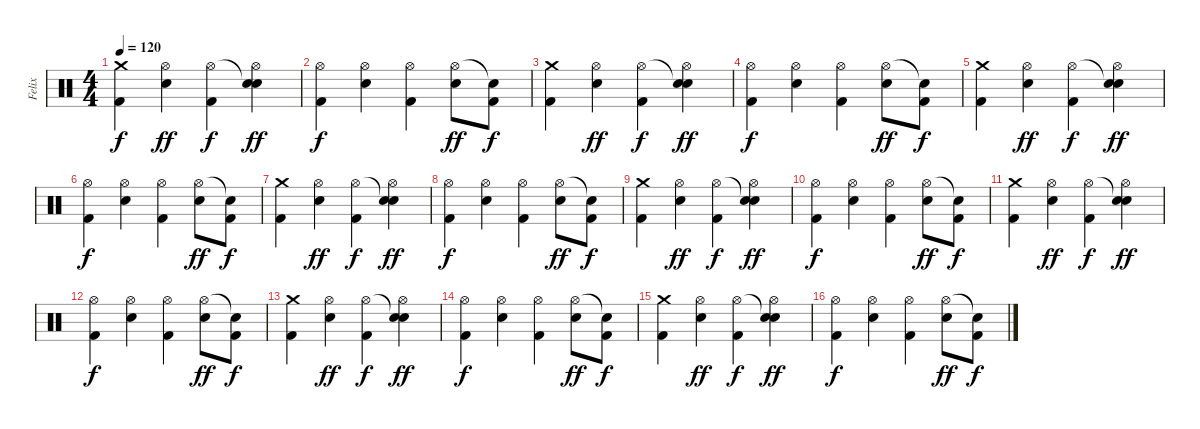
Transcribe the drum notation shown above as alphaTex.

\track ("Felix" "Felix") {instrument percussion}
\staff {score}
\articulation defaults
\ts (4 4)
\tempo 120
\clef neutral
\ks c
("Crash medium (hit)" "Kick (hit) 2").4{dy f} ("Hi-Hat (open)" "Electric Snare (hit)").4{dy ff} ("Hi-Hat (open)" "Kick (hit) 2").4{dy f} ("Snare (hit)"{t} "Hi-Hat (open)" "Electric Snare (hit)").4{dy ff} |
("Hi-Hat (open)" "Kick (hit) 2").4{dy f} ("Hi-Hat (open)" "Electric Snare (hit)").4 ("Hi-Hat (open)" "Kick (hit) 2").4 ("Hi-Hat (open)" "Electric Snare (hit)").8{dy ff} ("Snare (hit)"{t} "Kick (hit) 2").8{dy f} |
("Crash medium (hit)" "Kick (hit) 2").4 ("Hi-Hat (open)" "Electric Snare (hit)").4{dy ff} ("Hi-Hat (open)" "Kick (hit) 2").4{dy f} ("Snare (hit)"{t} "Hi-Hat (open)" "Electric Snare (hit)").4{dy ff} |
("Hi-Hat (open)" "Kick (hit) 2").4{dy f} ("Hi-Hat (open)" "Electric Snare (hit)").4 ("Hi-Hat (open)" "Kick (hit) 2").4 ("Hi-Hat (open)" "Electric Snare (hit)").8{dy ff} ("Snare (hit)"{t} "Kick (hit) 2").8{dy f} |
("Crash medium (hit)" "Kick (hit) 2").4 ("Hi-Hat (open)" "Electric Snare (hit)").4{dy ff} ("Hi-Hat (open)" "Kick (hit) 2").4{dy f} ("Snare (hit)"{t} "Hi-Hat (open)" "Electric Snare (hit)").4{dy ff} |
("Hi-Hat (open)" "Kick (hit) 2").4{dy f} ("Hi-Hat (open)" "Electric Snare (hit)").4 ("Hi-Hat (open)" "Kick (hit) 2").4 ("Hi-Hat (open)" "Electric Snare (hit)").8{dy ff} ("Snare (hit)"{t} "Kick (hit) 2").8{dy f} |
("Crash medium (hit)" "Kick (hit) 2").4 ("Hi-Hat (open)" "Electric Snare (hit)").4{dy ff} ("Hi-Hat (open)" "Kick (hit) 2").4{dy f} ("Snare (hit)"{t} "Hi-Hat (open)" "Electric Snare (hit)").4{dy ff} |
("Hi-Hat (open)" "Kick (hit) 2").4{dy f} ("Hi-Hat (open)" "Electric Snare (hit)").4 ("Hi-Hat (open)" "Kick (hit) 2").4 ("Hi-Hat (open)" "Electric Snare (hit)").8{dy ff} ("Snare (hit)"{t} "Kick (hit) 2").8{dy f} |
("Crash medium (hit)" "Kick (hit) 2").4 ("Hi-Hat (open)" "Electric Snare (hit)").4{dy ff} ("Hi-Hat (open)" "Kick (hit) 2").4{dy f} ("Snare (hit)"{t} "Hi-Hat (open)" "Electric Snare (hit)").4{dy ff} |
("Hi-Hat (open)" "Kick (hit) 2").4{dy f} ("Hi-Hat (open)" "Electric Snare (hit)").4 ("Hi-Hat (open)" "Kick (hit) 2").4 ("Hi-Hat (open)" "Electric Snare (hit)").8{dy ff} ("Snare (hit)"{t} "Kick (hit) 2").8{dy f} |
("Crash medium (hit)" "Kick (hit) 2").4 ("Hi-Hat (open)" "Electric Snare (hit)").4{dy ff} ("Hi-Hat (open)" "Kick (hit) 2").4{dy f} ("Snare (hit)"{t} "Hi-Hat (open)" "Electric Snare (hit)").4{dy ff} |
("Hi-Hat (open)" "Kick (hit) 2").4{dy f} ("Hi-Hat (open)" "Electric Snare (hit)").4 ("Hi-Hat (open)" "Kick (hit) 2").4 ("Hi-Hat (open)" "Electric Snare (hit)").8{dy ff} ("Snare (hit)"{t} "Kick (hit) 2").8{dy f} |
("Crash medium (hit)" "Kick (hit) 2").4 ("Hi-Hat (open)" "Electric Snare (hit)").4{dy ff} ("Hi-Hat (open)" "Kick (hit) 2").4{dy f} ("Snare (hit)"{t} "Hi-Hat (open)" "Electric Snare (hit)").4{dy ff} |
("Hi-Hat (open)" "Kick (hit) 2").4{dy f} ("Hi-Hat (open)" "Electric Snare (hit)").4 ("Hi-Hat (open)" "Kick (hit) 2").4 ("Hi-Hat (open)" "Electric Snare (hit)").8{dy ff} ("Snare (hit)"{t} "Kick (hit) 2").8{dy f} |
("Crash medium (hit)" "Kick (hit) 2").4 ("Hi-Hat (open)" "Electric Snare (hit)").4{dy ff} ("Hi-Hat (open)" "Kick (hit) 2").4{dy f} ("Snare (hit)"{t} "Hi-Hat (open)" "Electric Snare (hit)").4{dy ff} |
("Hi-Hat (open)" "Kick (hit) 2").4{dy f} ("Hi-Hat (open)" "Electric Snare (hit)").4 ("Hi-Hat (open)" "Kick (hit) 2").4 ("Hi-Hat (open)" "Electric Snare (hit)").8{dy ff} ("Snare (hit)"{t} "Kick (hit) 2").8{dy f}
